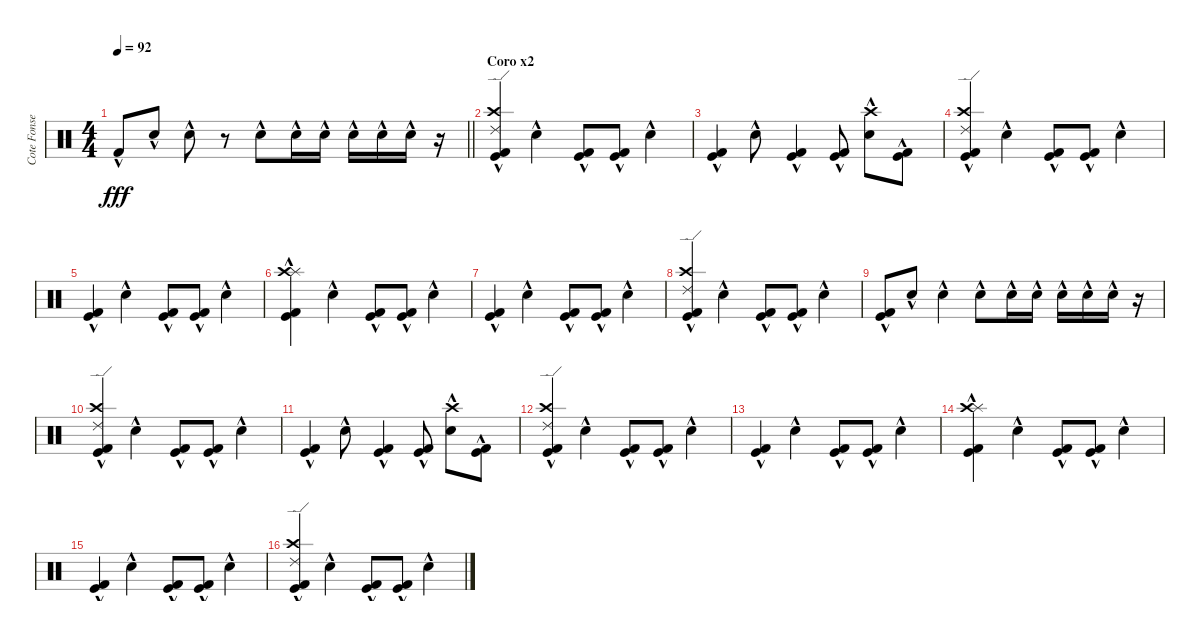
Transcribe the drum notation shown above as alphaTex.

\track ("Cote Fonsea" "Cote Fonse") {instrument percussion}
\staff {score}
\articulation defaults
\ts (4 4)
\tempo 92
\clef neutral
\barLineRight lightlight
\ks c "Kick (hit) 2"{hac}.8{dy fff} "Snare (hit) 2"{hac}.8 "Snare (hit) 2"{hac}.8
r.8 "Snare (hit) 2"{hac}.8 "Snare (hit) 2"{hac}.16 "Snare (hit) 2"{hac}.16 "Snare (hit) 2"{hac}.16 "Snare (hit) 2"{hac}.16 "Snare (hit) 2"{hac}.16 r.16 |
\section ("" "Coro x2")
("Ride (edge) 2" "Crash high (hit)" "Kick (hit) 2"{hac} "Kick (hit)"{hac}).4 "Snare (hit) 2"{hac}.4 ("Kick (hit) 2"{hac} "Kick (hit)").8 ("Kick (hit) 2"{hac} "Kick (hit)").8 "Snare (hit) 2"{hac}.4 |
("Kick (hit) 2"{hac} "Kick (hit)"{hac}).4 "Snare (hit) 2"{hac}.8 ("Kick (hit) 2"{hac} "Kick (hit)").4 ("Kick (hit) 2"{hac} "Kick (hit)").8 ("Crash high (hit)" "Snare (hit) 2"{hac}).8 ("Kick (hit) 2"{hac} "Kick (hit)"{hac}).8 |
("Ride (edge) 2" "Crash high (hit)" "Kick (hit) 2"{hac} "Kick (hit)"{hac}).4 "Snare (hit) 2"{hac}.4 ("Kick (hit) 2"{hac} "Kick (hit)").8 ("Kick (hit) 2"{hac} "Kick (hit)").8 "Snare (hit) 2"{hac}.4 |
("Kick (hit) 2"{hac} "Kick (hit)"{hac}).4 "Snare (hit) 2"{hac}.4 ("Kick (hit) 2"{hac} "Kick (hit)").8 ("Kick (hit) 2"{hac} "Kick (hit)").8 "Snare (hit) 2"{hac}.4 |
("Splash (hit)" "Crash high (hit)" "Kick (hit) 2"{hac} "Kick (hit)"{hac}).4 "Snare (hit) 2"{hac}.4 ("Kick (hit) 2"{hac} "Kick (hit)").8 ("Kick (hit) 2"{hac} "Kick (hit)").8 "Snare (hit) 2"{hac}.4 |
("Kick (hit) 2"{hac} "Kick (hit)"{hac}).4 "Snare (hit) 2"{hac}.4 ("Kick (hit) 2"{hac} "Kick (hit)").8 ("Kick (hit) 2"{hac} "Kick (hit)").8 "Snare (hit) 2"{hac}.4 |
("Crash high (hit)" "Ride (edge) 2" "Kick (hit) 2"{hac} "Kick (hit)"{hac}).4 "Snare (hit) 2"{hac}.4 ("Kick (hit) 2"{hac} "Kick (hit)").8 ("Kick (hit) 2"{hac} "Kick (hit)").8 "Snare (hit) 2"{hac}.4 |
("Kick (hit) 2"{hac} "Kick (hit)"{hac}).8 "Snare (hit) 2"{hac}.8 "Snare (hit) 2"{hac}.4 "Snare (hit) 2"{hac}.8 "Snare (hit) 2"{hac}.16 "Snare (hit) 2"{hac}.16 "Snare (hit) 2"{hac}.16 "Snare (hit) 2"{hac}.16 "Snare (hit) 2"{hac}.16 r.16 |
("Ride (edge) 2"{hac} "Crash high (hit)"{hac} "Kick (hit) 2"{hac} "Kick (hit)"{hac}).4 "Snare (hit) 2"{hac}.4 ("Kick (hit) 2"{hac} "Kick (hit)").8 ("Kick (hit) 2"{hac} "Kick (hit)").8 "Snare (hit) 2"{hac}.4 |
("Kick (hit) 2"{hac} "Kick (hit)"{hac}).4 "Snare (hit) 2"{hac}.8 ("Kick (hit) 2"{hac} "Kick (hit)").4 ("Kick (hit) 2"{hac} "Kick (hit)").8 ("Crash high (hit)" "Snare (hit) 2"{hac}).8 ("Kick (hit) 2"{hac} "Kick (hit)"{hac}).8 |
("Ride (edge) 2" "Crash high (hit)"{hac} "Kick (hit) 2"{hac} "Kick (hit)"{hac}).4 "Snare (hit) 2"{hac}.4 ("Kick (hit) 2"{hac} "Kick (hit)").8 ("Kick (hit) 2"{hac} "Kick (hit)").8 "Snare (hit) 2"{hac}.4 |
("Kick (hit) 2"{hac} "Kick (hit)"{hac}).4 "Snare (hit) 2"{hac}.4 ("Kick (hit) 2"{hac} "Kick (hit)").8 ("Kick (hit) 2"{hac} "Kick (hit)").8 "Snare (hit) 2"{hac}.4 |
("Splash (hit)" "Crash high (hit)"{hac} "Kick (hit) 2"{hac} "Kick (hit)"{hac}).4 "Snare (hit) 2"{hac}.4 ("Kick (hit) 2"{hac} "Kick (hit)").8 ("Kick (hit) 2"{hac} "Kick (hit)").8 "Snare (hit) 2"{hac}.4 |
("Kick (hit) 2"{hac} "Kick (hit)"{hac}).4 "Snare (hit) 2"{hac}.4 ("Kick (hit) 2"{hac} "Kick (hit)").8 ("Kick (hit) 2"{hac} "Kick (hit)").8 "Snare (hit) 2"{hac}.4 |
("Crash high (hit)" "Ride (edge) 2" "Kick (hit) 2"{hac} "Kick (hit)"{hac}).4 "Snare (hit) 2"{hac}.4 ("Kick (hit) 2"{hac} "Kick (hit)").8 ("Kick (hit) 2"{hac} "Kick (hit)").8 "Snare (hit) 2"{hac}.4
